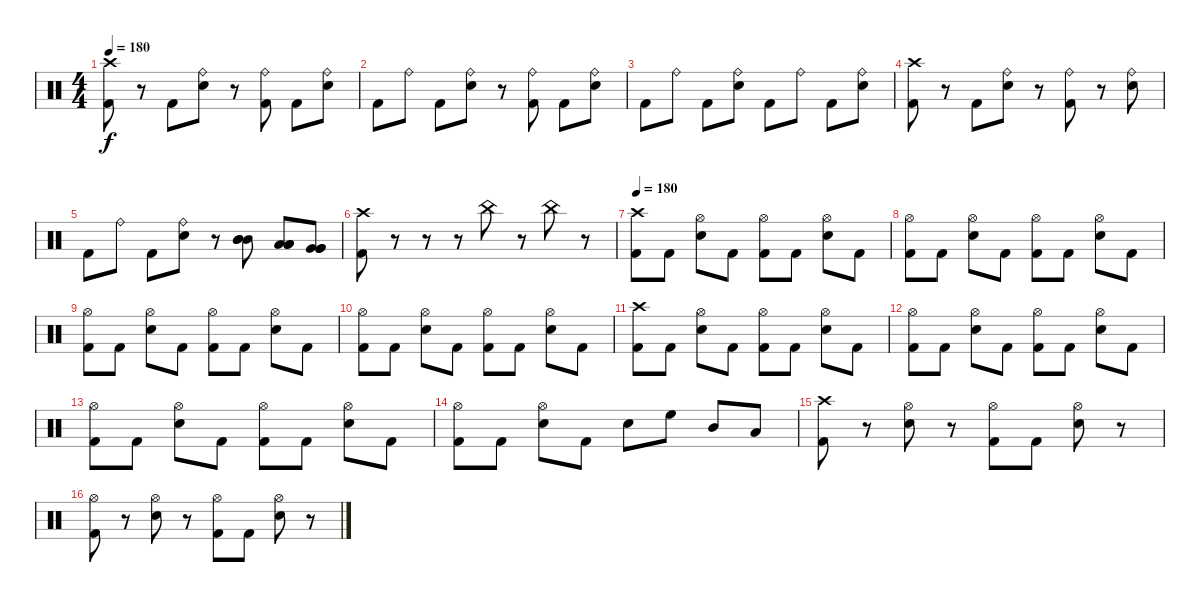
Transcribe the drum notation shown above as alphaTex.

\track "" {instrument percussion}
\staff {score}
\articulation defaults
\ts (4 4)
\tempo 180
\clef neutral
\ks c
("Crash high (hit)" "Kick (hit) 2").8{dy f} r.8 "Kick (hit) 2".8 ("Ride (bell)" "Electric Snare (hit)").8 r.8 ("Ride (bell)" "Kick (hit) 2").8 "Kick (hit) 2".8 ("Ride (bell)" "Electric Snare (hit)").8 |
"Kick (hit) 2".8 "Ride (bell)".8 "Kick (hit) 2".8 ("Ride (bell)" "Electric Snare (hit)").8 r.8 ("Ride (bell)" "Kick (hit) 2").8 "Kick (hit) 2".8 ("Ride (bell)" "Electric Snare (hit)").8 |
"Kick (hit) 2".8 "Ride (bell)".8 "Kick (hit) 2".8 ("Ride (bell)" "Electric Snare (hit)").8 "Kick (hit) 2".8 "Ride (bell)".8 "Kick (hit) 2".8 ("Ride (bell)" "Electric Snare (hit)").8 |
("Crash high (hit)" "Kick (hit) 2").8 r.8 "Kick (hit) 2".8 ("Ride (bell)" "Electric Snare (hit)").8 r.8 ("Ride (bell)" "Kick (hit) 2").8 r.8 ("Ride (bell)" "Electric Snare (hit)").8 |
"Kick (hit) 2".8 "Ride (bell)".8 "Kick (hit) 2".8 ("Ride (bell)" "Electric Snare (hit)").8 r.8 ("Mid Tom (hit)" "Mid Tom (hit)" "Mid Tom (hit)").8 ("Low Tom (hit)" "Low Tom (hit)" "Low Tom (hit)").8 ("Very Low Tom (hit)" "Very Low Tom (hit)" "Very Low Tom (hit)").8 |
("Crash high (hit)" "Kick (hit) 2").8 r.8 r.8 r.8 "China (hit)".8 r.8 "China (hit)".8 r.8 |
\tempo 180
("Crash high (hit)" "Kick (hit) 2").8 "Kick (hit) 2".8 ("Hi-Hat (open)" "Electric Snare (hit)").8 "Kick (hit) 2".8 ("Hi-Hat (open)" "Kick (hit) 2").8 "Kick (hit) 2".8 ("Hi-Hat (open)" "Electric Snare (hit)").8 "Kick (hit) 2".8 |
("Hi-Hat (open)" "Kick (hit) 2").8 "Kick (hit) 2".8 ("Hi-Hat (open)" "Electric Snare (hit)").8 "Kick (hit) 2".8 ("Hi-Hat (open)" "Kick (hit) 2").8 "Kick (hit) 2".8 ("Hi-Hat (open)" "Electric Snare (hit)").8 "Kick (hit) 2".8 |
("Hi-Hat (open)" "Kick (hit) 2").8 "Kick (hit) 2".8 ("Hi-Hat (open)" "Electric Snare (hit)").8 "Kick (hit) 2".8 ("Hi-Hat (open)" "Kick (hit) 2").8 "Kick (hit) 2".8 ("Hi-Hat (open)" "Electric Snare (hit)").8 "Kick (hit) 2".8 |
("Hi-Hat (open)" "Kick (hit) 2").8 "Kick (hit) 2".8 ("Hi-Hat (open)" "Electric Snare (hit)").8 "Kick (hit) 2".8 ("Hi-Hat (open)" "Kick (hit) 2").8 "Kick (hit) 2".8 ("Hi-Hat (open)" "Electric Snare (hit)").8 "Kick (hit) 2".8 |
("Crash high (hit)" "Kick (hit) 2").8 "Kick (hit) 2".8 ("Hi-Hat (open)" "Electric Snare (hit)").8 "Kick (hit) 2".8 ("Hi-Hat (open)" "Kick (hit) 2").8 "Kick (hit) 2".8 ("Hi-Hat (open)" "Electric Snare (hit)").8 "Kick (hit) 2".8 |
("Hi-Hat (open)" "Kick (hit) 2").8 "Kick (hit) 2".8 ("Hi-Hat (open)" "Electric Snare (hit)").8 "Kick (hit) 2".8 ("Hi-Hat (open)" "Kick (hit) 2").8 "Kick (hit) 2".8 ("Hi-Hat (open)" "Electric Snare (hit)").8 "Kick (hit) 2".8 |
("Hi-Hat (open)" "Kick (hit) 2").8 "Kick (hit) 2".8 ("Hi-Hat (open)" "Electric Snare (hit)").8 "Kick (hit) 2".8 ("Hi-Hat (open)" "Kick (hit) 2").8 "Kick (hit) 2".8 ("Hi-Hat (open)" "Electric Snare (hit)").8 "Kick (hit) 2".8 |
("Hi-Hat (open)" "Kick (hit) 2").8 "Kick (hit) 2".8 ("Hi-Hat (open)" "Electric Snare (hit)").8 "Kick (hit) 2".8 "Electric Snare (hit)".8 "High Floor Tom (hit)".8 "Mid Tom (hit)".8 "Low Tom (hit)".8 |
("Crash high (hit)" "Kick (hit) 2").8 r.8 ("Hi-Hat (open)" "Electric Snare (hit)").8 r.8 ("Hi-Hat (open)" "Kick (hit) 2").8 "Kick (hit) 2".8 ("Hi-Hat (open)" "Electric Snare (hit)").8 r.8 |
("Hi-Hat (open)" "Kick (hit) 2").8 r.8 ("Hi-Hat (open)" "Electric Snare (hit)").8 r.8 ("Hi-Hat (open)" "Kick (hit) 2").8 "Kick (hit) 2".8 ("Hi-Hat (open)" "Electric Snare (hit)").8 r.8
